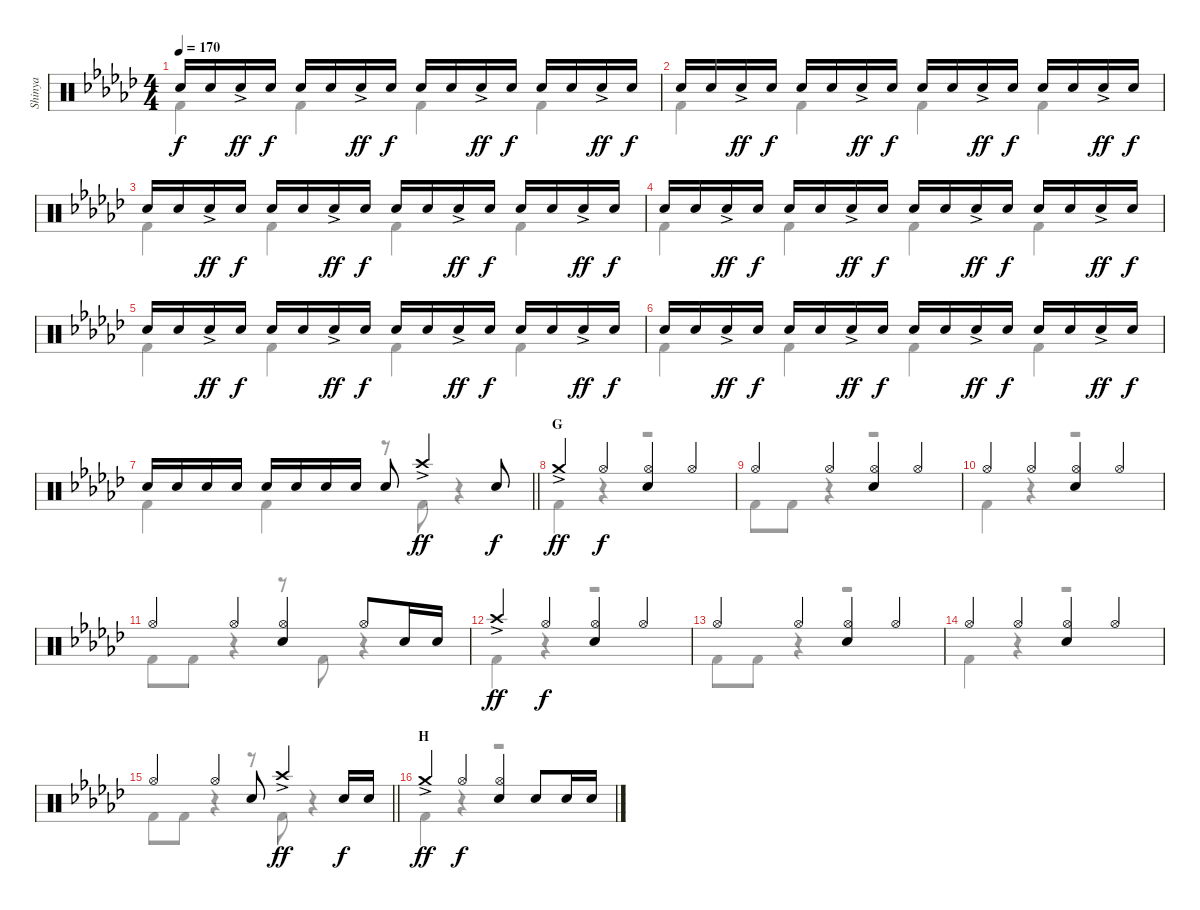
\track ("Shinya" "Shinya") {instrument percussion}
\staff {score}
\articulation defaults
\voice
\ts (4 4)
\tempo 170
\clef neutral
\ks ebminor "Snare (hit) 2".16{dy f} "Snare (hit) 2".16 "Snare (hit) 2"{ac}.16{dy ff} "Snare (hit) 2".16{dy f} "Snare (hit) 2".16 "Snare (hit) 2".16 "Snare (hit) 2"{ac}.16{dy ff} "Snare (hit) 2".16{dy f} "Snare (hit) 2".16 "Snare (hit) 2".16 "Snare (hit) 2"{ac}.16{dy ff} "Snare (hit) 2".16{dy f} "Snare (hit) 2".16 "Snare (hit) 2".16 "Snare (hit) 2"{ac}.16{dy ff} "Snare (hit) 2".16{dy f}
|
"Snare (hit) 2".16 "Snare (hit) 2".16 "Snare (hit) 2"{ac}.16{dy ff} "Snare (hit) 2".16{dy f} "Snare (hit) 2".16 "Snare (hit) 2".16 "Snare (hit) 2"{ac}.16{dy ff} "Snare (hit) 2".16{dy f} "Snare (hit) 2".16 "Snare (hit) 2".16 "Snare (hit) 2"{ac}.16{dy ff} "Snare (hit) 2".16{dy f} "Snare (hit) 2".16 "Snare (hit) 2".16 "Snare (hit) 2"{ac}.16{dy ff} "Snare (hit) 2".16{dy f} |
"Snare (hit) 2".16 "Snare (hit) 2".16 "Snare (hit) 2"{ac}.16{dy ff} "Snare (hit) 2".16{dy f} "Snare (hit) 2".16 "Snare (hit) 2".16 "Snare (hit) 2"{ac}.16{dy ff} "Snare (hit) 2".16{dy f} "Snare (hit) 2".16 "Snare (hit) 2".16 "Snare (hit) 2"{ac}.16{dy ff} "Snare (hit) 2".16{dy f} "Snare (hit) 2".16 "Snare (hit) 2".16 "Snare (hit) 2"{ac}.16{dy ff} "Snare (hit) 2".16{dy f} |
"Snare (hit) 2".16 "Snare (hit) 2".16 "Snare (hit) 2"{ac}.16{dy ff} "Snare (hit) 2".16{dy f} "Snare (hit) 2".16 "Snare (hit) 2".16 "Snare (hit) 2"{ac}.16{dy ff} "Snare (hit) 2".16{dy f} "Snare (hit) 2".16 "Snare (hit) 2".16 "Snare (hit) 2"{ac}.16{dy ff} "Snare (hit) 2".16{dy f} "Snare (hit) 2".16 "Snare (hit) 2".16 "Snare (hit) 2"{ac}.16{dy ff} "Snare (hit) 2".16{dy f} |
"Snare (hit) 2".16 "Snare (hit) 2".16 "Snare (hit) 2"{ac}.16{dy ff} "Snare (hit) 2".16{dy f} "Snare (hit) 2".16 "Snare (hit) 2".16 "Snare (hit) 2"{ac}.16{dy ff} "Snare (hit) 2".16{dy f} "Snare (hit) 2".16 "Snare (hit) 2".16 "Snare (hit) 2"{ac}.16{dy ff} "Snare (hit) 2".16{dy f} "Snare (hit) 2".16 "Snare (hit) 2".16 "Snare (hit) 2"{ac}.16{dy ff} "Snare (hit) 2".16{dy f} |
"Snare (hit) 2".16 "Snare (hit) 2".16 "Snare (hit) 2"{ac}.16{dy ff} "Snare (hit) 2".16{dy f} "Snare (hit) 2".16 "Snare (hit) 2".16 "Snare (hit) 2"{ac}.16{dy ff} "Snare (hit) 2".16{dy f} "Snare (hit) 2".16 "Snare (hit) 2".16 "Snare (hit) 2"{ac}.16{dy ff} "Snare (hit) 2".16{dy f} "Snare (hit) 2".16 "Snare (hit) 2".16 "Snare (hit) 2"{ac}.16{dy ff} "Snare (hit) 2".16{dy f} |
\barLineRight lightlight "Snare (hit) 2".16 "Snare (hit) 2".16 "Snare (hit) 2".16 "Snare (hit) 2".16 "Snare (hit) 2".16 "Snare (hit) 2".16 "Snare (hit) 2".16 "Snare (hit) 2".16 "Snare (hit) 2".8 "Crash high (hit)"{ac}.4{dy ff} "Snare (hit) 2".8{dy f}
|
\section ("" "G")
"Crash medium (hit)"{ac}.4{dy ff} "Hi-Hat (open)".4{dy f} ("Hi-Hat (open)" "Snare (hit) 2").4 "Hi-Hat (open)".4 |
"Hi-Hat (open)".4 "Hi-Hat (open)".4 ("Hi-Hat (open)" "Snare (hit) 2").4 "Hi-Hat (open)".4 |
"Hi-Hat (open)".4 "Hi-Hat (open)".4 ("Hi-Hat (open)" "Snare (hit) 2").4 "Hi-Hat (open)".4 |
"Hi-Hat (open)".4 "Hi-Hat (open)".4 ("Hi-Hat (open)" "Snare (hit) 2").4 "Hi-Hat (open)".8 "Snare (hit) 2".16 "Snare (hit) 2".16 |
"Crash high (hit)"{ac}.4{dy ff} "Hi-Hat (open)".4{dy f} ("Hi-Hat (open)" "Snare (hit) 2").4 "Hi-Hat (open)".4 |
"Hi-Hat (open)".4 "Hi-Hat (open)".4 ("Hi-Hat (open)" "Snare (hit) 2").4 "Hi-Hat (open)".4 |
"Hi-Hat (open)".4 "Hi-Hat (open)".4 ("Hi-Hat (open)" "Snare (hit) 2").4 "Hi-Hat (open)".4 |
\barLineRight lightlight "Hi-Hat (open)".4 "Hi-Hat (open)".4 "Snare (hit) 2".8 "Crash high (hit)"{ac}.4{dy ff} "Snare (hit) 2".16{dy f} "Snare (hit) 2".16
|
\section ("" "H")
"Crash medium (hit)"{ac}.4{dy ff} "Hi-Hat (open)".4{dy f} ("Hi-Hat (open)" "Snare (hit) 2").4 "Snare (hit) 2".8 "Snare (hit) 2".16 "Snare (hit) 2".16
\voice
\clef neutral
\ottava regular
\simile none
\ks ebminor "Kick (hit) 2".4{dy f} "Kick (hit) 2".4 "Kick (hit) 2".4 "Kick (hit) 2".4
|
"Kick (hit) 2".4 "Kick (hit) 2".4 "Kick (hit) 2".4 "Kick (hit) 2".4 |
"Kick (hit) 2".4 "Kick (hit) 2".4 "Kick (hit) 2".4 "Kick (hit) 2".4 |
"Kick (hit) 2".4 "Kick (hit) 2".4 "Kick (hit) 2".4 "Kick (hit) 2".4 |
"Kick (hit) 2".4 "Kick (hit) 2".4 "Kick (hit) 2".4 "Kick (hit) 2".4 |
"Kick (hit) 2".4 "Kick (hit) 2".4 "Kick (hit) 2".4 "Kick (hit) 2".4 |
\barLineRight lightlight "Kick (hit) 2".4 "Kick (hit) 2".4
r.8 "Kick (hit) 2".8 r.4 |
"Kick (hit) 2".4 r.4 r.2 |
"Kick (hit) 2".8 "Kick (hit) 2".8 r.4 r.2 |
"Kick (hit) 2".4 r.4 r.2 |
"Kick (hit) 2".8 "Kick (hit) 2".8 r.4 r.8 "Kick (hit) 2".8 r.4 |
"Kick (hit) 2".4 r.4 r.2 |
"Kick (hit) 2".8 "Kick (hit) 2".8 r.4 r.2 |
"Kick (hit) 2".4 r.4 r.2 |
\barLineRight lightlight "Kick (hit) 2".8 "Kick (hit) 2".8
r.4 r.8 "Kick (hit) 2".8 r.4 |
"Kick (hit) 2".4 r.4 r.2
